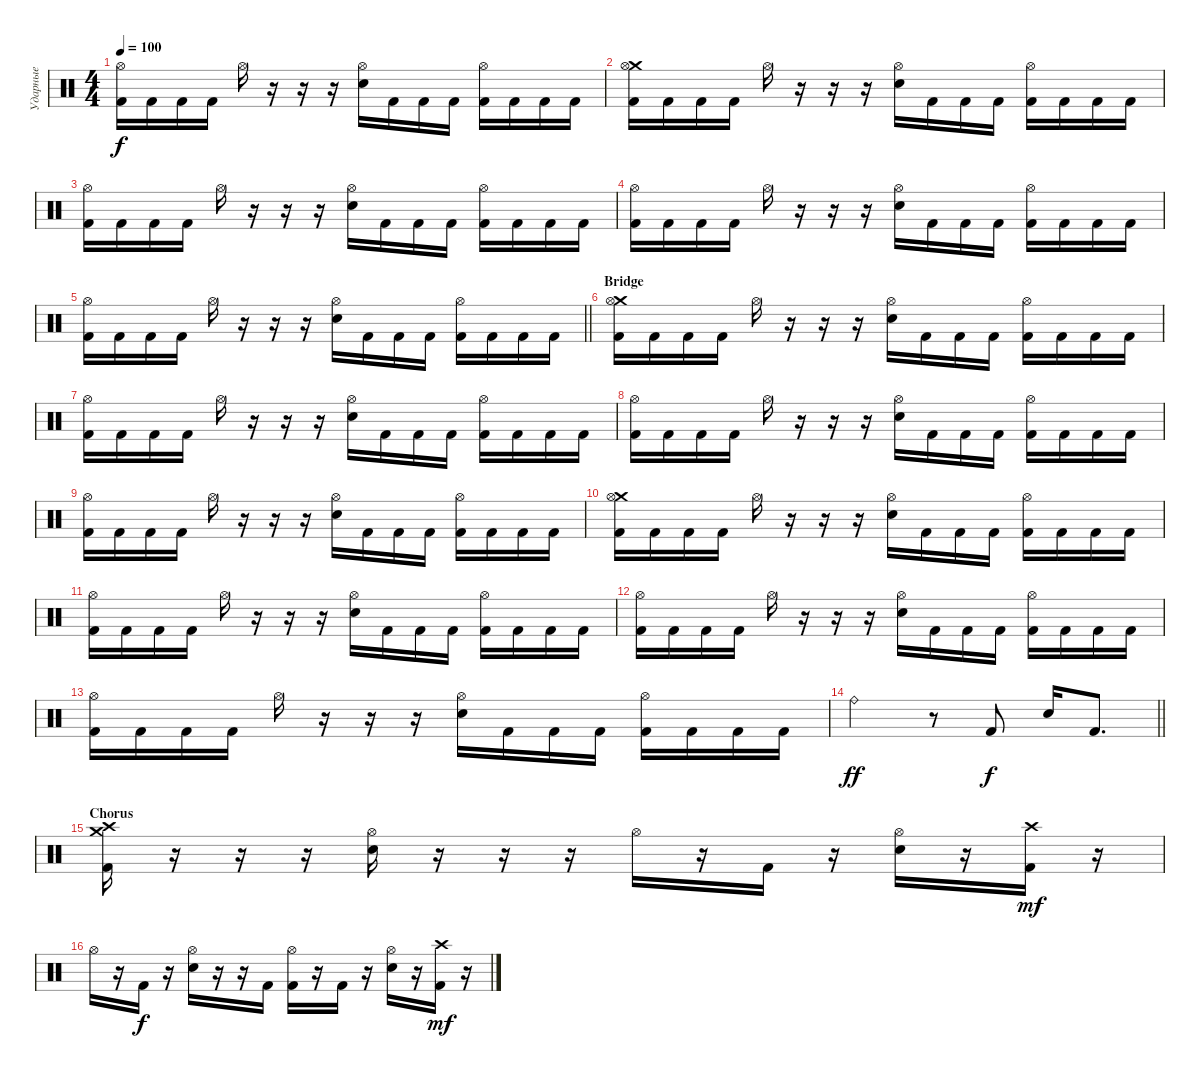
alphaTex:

\track ("Ударные" "Ударные") {instrument percussion}
\staff {score}
\articulation defaults
\ts (4 4)
\tempo 100
\clef neutral
\ks c
("Hi-Hat (open)" "Kick (hit) 2").16{dy f} "Kick (hit) 2".16 "Kick (hit) 2".16 "Kick (hit) 2".16 "Hi-Hat (open)".16 r.16 r.16 r.16 ("Hi-Hat (open)" "Electric Snare (hit)").16 "Kick (hit) 2".16 "Kick (hit) 2".16 "Kick (hit) 2".16 ("Hi-Hat (open)" "Kick (hit) 2").16 "Kick (hit) 2".16 "Kick (hit) 2".16 "Kick (hit) 2".16 |
("Crash medium (hit)" "Hi-Hat (open)" "Kick (hit) 2").16 "Kick (hit) 2".16 "Kick (hit) 2".16 "Kick (hit) 2".16 "Hi-Hat (open)".16 r.16 r.16 r.16 ("Hi-Hat (open)" "Electric Snare (hit)").16 "Kick (hit) 2".16 "Kick (hit) 2".16 "Kick (hit) 2".16 ("Hi-Hat (open)" "Kick (hit) 2").16 "Kick (hit) 2".16 "Kick (hit) 2".16 "Kick (hit) 2".16 |
("Hi-Hat (open)" "Kick (hit) 2").16 "Kick (hit) 2".16 "Kick (hit) 2".16 "Kick (hit) 2".16 "Hi-Hat (open)".16 r.16 r.16 r.16 ("Hi-Hat (open)" "Electric Snare (hit)").16 "Kick (hit) 2".16 "Kick (hit) 2".16 "Kick (hit) 2".16 ("Hi-Hat (open)" "Kick (hit) 2").16 "Kick (hit) 2".16 "Kick (hit) 2".16 "Kick (hit) 2".16 |
("Hi-Hat (open)" "Kick (hit) 2").16 "Kick (hit) 2".16 "Kick (hit) 2".16 "Kick (hit) 2".16 "Hi-Hat (open)".16 r.16 r.16 r.16 ("Hi-Hat (open)" "Electric Snare (hit)").16 "Kick (hit) 2".16 "Kick (hit) 2".16 "Kick (hit) 2".16 ("Hi-Hat (open)" "Kick (hit) 2").16 "Kick (hit) 2".16 "Kick (hit) 2".16 "Kick (hit) 2".16 |
\barLineRight lightlight
("Hi-Hat (open)" "Kick (hit) 2").16 "Kick (hit) 2".16 "Kick (hit) 2".16 "Kick (hit) 2".16 "Hi-Hat (open)".16 r.16 r.16 r.16 ("Hi-Hat (open)" "Electric Snare (hit)").16 "Kick (hit) 2".16 "Kick (hit) 2".16 "Kick (hit) 2".16 ("Hi-Hat (open)" "Kick (hit) 2").16 "Kick (hit) 2".16 "Kick (hit) 2".16 "Kick (hit) 2".16 |
\section ("" "Bridge")
("Crash medium (hit)" "Hi-Hat (open)" "Kick (hit) 2").16 "Kick (hit) 2".16 "Kick (hit) 2".16 "Kick (hit) 2".16 "Hi-Hat (open)".16 r.16 r.16 r.16 ("Hi-Hat (open)" "Electric Snare (hit)").16 "Kick (hit) 2".16 "Kick (hit) 2".16 "Kick (hit) 2".16 ("Hi-Hat (open)" "Kick (hit) 2").16 "Kick (hit) 2".16 "Kick (hit) 2".16 "Kick (hit) 2".16 |
("Hi-Hat (open)" "Kick (hit) 2").16 "Kick (hit) 2".16 "Kick (hit) 2".16 "Kick (hit) 2".16 "Hi-Hat (open)".16 r.16 r.16 r.16 ("Hi-Hat (open)" "Electric Snare (hit)").16 "Kick (hit) 2".16 "Kick (hit) 2".16 "Kick (hit) 2".16 ("Hi-Hat (open)" "Kick (hit) 2").16 "Kick (hit) 2".16 "Kick (hit) 2".16 "Kick (hit) 2".16 |
("Hi-Hat (open)" "Kick (hit) 2").16 "Kick (hit) 2".16 "Kick (hit) 2".16 "Kick (hit) 2".16 "Hi-Hat (open)".16 r.16 r.16 r.16 ("Hi-Hat (open)" "Electric Snare (hit)").16 "Kick (hit) 2".16 "Kick (hit) 2".16 "Kick (hit) 2".16 ("Hi-Hat (open)" "Kick (hit) 2").16 "Kick (hit) 2".16 "Kick (hit) 2".16 "Kick (hit) 2".16 |
("Hi-Hat (open)" "Kick (hit) 2").16 "Kick (hit) 2".16 "Kick (hit) 2".16 "Kick (hit) 2".16 "Hi-Hat (open)".16 r.16 r.16 r.16 ("Hi-Hat (open)" "Electric Snare (hit)").16 "Kick (hit) 2".16 "Kick (hit) 2".16 "Kick (hit) 2".16 ("Hi-Hat (open)" "Kick (hit) 2").16 "Kick (hit) 2".16 "Kick (hit) 2".16 "Kick (hit) 2".16 |
("Crash medium (hit)" "Hi-Hat (open)" "Kick (hit) 2").16 "Kick (hit) 2".16 "Kick (hit) 2".16 "Kick (hit) 2".16 "Hi-Hat (open)".16 r.16 r.16 r.16 ("Hi-Hat (open)" "Electric Snare (hit)").16 "Kick (hit) 2".16 "Kick (hit) 2".16 "Kick (hit) 2".16 ("Hi-Hat (open)" "Kick (hit) 2").16 "Kick (hit) 2".16 "Kick (hit) 2".16 "Kick (hit) 2".16 |
("Hi-Hat (open)" "Kick (hit) 2").16 "Kick (hit) 2".16 "Kick (hit) 2".16 "Kick (hit) 2".16 "Hi-Hat (open)".16 r.16 r.16 r.16 ("Hi-Hat (open)" "Electric Snare (hit)").16 "Kick (hit) 2".16 "Kick (hit) 2".16 "Kick (hit) 2".16 ("Hi-Hat (open)" "Kick (hit) 2").16 "Kick (hit) 2".16 "Kick (hit) 2".16 "Kick (hit) 2".16 |
("Hi-Hat (open)" "Kick (hit) 2").16 "Kick (hit) 2".16 "Kick (hit) 2".16 "Kick (hit) 2".16 "Hi-Hat (open)".16 r.16 r.16 r.16 ("Hi-Hat (open)" "Electric Snare (hit)").16 "Kick (hit) 2".16 "Kick (hit) 2".16 "Kick (hit) 2".16 ("Hi-Hat (open)" "Kick (hit) 2").16 "Kick (hit) 2".16 "Kick (hit) 2".16 "Kick (hit) 2".16 |
("Hi-Hat (open)" "Kick (hit) 2").16 "Kick (hit) 2".16 "Kick (hit) 2".16 "Kick (hit) 2".16 "Hi-Hat (open)".16 r.16 r.16 r.16 ("Hi-Hat (open)" "Electric Snare (hit)").16 "Kick (hit) 2".16 "Kick (hit) 2".16 "Kick (hit) 2".16 ("Hi-Hat (open)" "Kick (hit) 2").16 "Kick (hit) 2".16 "Kick (hit) 2".16 "Kick (hit) 2".16 |
\barLineRight lightlight "Ride (bell)".2{dy ff}
r.8 "Kick (hit) 2".8{dy f} "Electric Snare (hit)".16 "Kick (hit) 2".8{d} |
\section ("" "Chorus")
("Crash medium (hit)" "Crash high (hit)" "Kick (hit) 2").16 r.16 r.16 r.16 ("Hi-Hat (open)" "Electric Snare (hit)").16 r.16 r.16 r.16 "Hi-Hat (open)".16 r.16 "Kick (hit) 2".16 r.16 ("Hi-Hat (open)" "Electric Snare (hit)").16 r.16 ("Crash high (hit)" "Kick (hit) 2").16{dy mf} r.16 |
"Hi-Hat (open)".16 r.16 "Kick (hit) 2".16{dy f} r.16 ("Hi-Hat (open)" "Electric Snare (hit)").16 r.16 r.16 "Kick (hit) 2".16 ("Hi-Hat (open)" "Kick (hit) 2").16 r.16 "Kick (hit) 2".16 r.16 ("Hi-Hat (open)" "Electric Snare (hit)").16 r.16 ("Crash high (hit)" "Kick (hit) 2").16{dy mf} r.16
